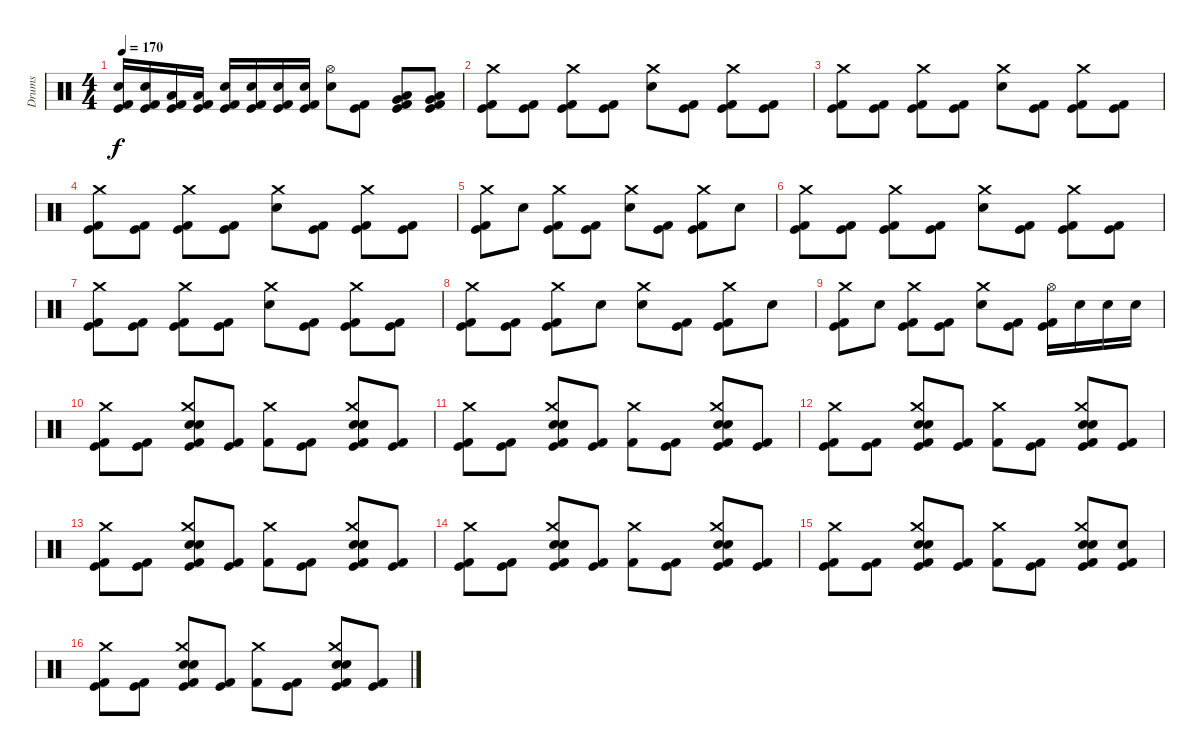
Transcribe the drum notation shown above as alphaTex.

\track ("Drums" "Drums") {instrument percussion}
\staff {score}
\articulation defaults
\ts (4 4)
\tempo 170
\clef neutral
\ks c
("Kick (hit) 2" "Snare (hit) 2" "Kick (hit)").16{dy f} ("Kick (hit) 2" "Snare (hit) 2" "Kick (hit)").16 ("Kick (hit) 2" "Low Tom (hit)" "Kick (hit)").16 ("Kick (hit) 2" "Low Tom (hit)" "Kick (hit)").16 ("Kick (hit) 2" "Snare (hit) 2" "Kick (hit)").16 ("Kick (hit) 2" "Snare (hit) 2" "Kick (hit)").16 ("Kick (hit) 2" "Snare (hit) 2" "Kick (hit)").16 ("Kick (hit) 2" "Snare (hit) 2" "Kick (hit)").16 ("Snare (hit) 2" "Hi-Hat (open)").8 ("Kick (hit) 2" "Kick (hit)").8 ("Kick (hit) 2" "Kick (hit)" "Very Low Tom (hit)" "Low Tom (hit)").8 ("Kick (hit) 2" "Kick (hit)" "Very Low Tom (hit)" "Low Tom (hit)").8 |
("Kick (hit) 2" "Kick (hit)" "Crash medium (hit)").8 ("Kick (hit) 2" "Kick (hit)").8 ("Kick (hit) 2" "Kick (hit)" "Crash medium (hit)").8 ("Kick (hit) 2" "Kick (hit)").8 ("Snare (hit) 2" "Crash medium (hit)").8 ("Kick (hit) 2" "Kick (hit)").8 ("Kick (hit) 2" "Kick (hit)" "Crash medium (hit)").8 ("Kick (hit) 2" "Kick (hit)").8 |
("Kick (hit) 2" "Kick (hit)" "Crash medium (hit)").8 ("Kick (hit) 2" "Kick (hit)").8 ("Kick (hit) 2" "Kick (hit)" "Crash medium (hit)").8 ("Kick (hit) 2" "Kick (hit)").8 ("Snare (hit) 2" "Crash medium (hit)").8 ("Kick (hit) 2" "Kick (hit)").8 ("Kick (hit) 2" "Kick (hit)" "Crash medium (hit)").8 ("Kick (hit) 2" "Kick (hit)").8 |
("Kick (hit) 2" "Kick (hit)" "Crash medium (hit)").8 ("Kick (hit) 2" "Kick (hit)").8 ("Kick (hit) 2" "Kick (hit)" "Crash medium (hit)").8 ("Kick (hit) 2" "Kick (hit)").8 ("Snare (hit) 2" "Crash medium (hit)").8 ("Kick (hit) 2" "Kick (hit)").8 ("Kick (hit) 2" "Kick (hit)" "Crash medium (hit)").8 ("Kick (hit) 2" "Kick (hit)").8 |
("Kick (hit) 2" "Kick (hit)" "Crash medium (hit)").8 "Snare (hit) 2".8 ("Kick (hit) 2" "Crash medium (hit)" "Kick (hit)").8 ("Kick (hit) 2" "Kick (hit)").8 ("Snare (hit) 2" "Crash medium (hit)").8 ("Kick (hit) 2" "Kick (hit)").8 ("Kick (hit) 2" "Kick (hit)" "Crash medium (hit)").8 "Snare (hit) 2".8 |
("Kick (hit) 2" "Kick (hit)" "Crash medium (hit)").8 ("Kick (hit) 2" "Kick (hit)").8 ("Kick (hit) 2" "Kick (hit)" "Crash medium (hit)").8 ("Kick (hit) 2" "Kick (hit)").8 ("Snare (hit) 2" "Crash medium (hit)").8 ("Kick (hit) 2" "Kick (hit)").8 ("Kick (hit) 2" "Kick (hit)" "Crash medium (hit)").8 ("Kick (hit) 2" "Kick (hit)").8 |
("Kick (hit) 2" "Kick (hit)" "Crash medium (hit)").8 ("Kick (hit) 2" "Kick (hit)").8 ("Kick (hit) 2" "Kick (hit)" "Crash medium (hit)").8 ("Kick (hit) 2" "Kick (hit)").8 ("Snare (hit) 2" "Crash medium (hit)").8 ("Kick (hit) 2" "Kick (hit)").8 ("Kick (hit) 2" "Kick (hit)" "Crash medium (hit)").8 ("Kick (hit) 2" "Kick (hit)").8 |
("Kick (hit) 2" "Kick (hit)" "Crash medium (hit)").8 ("Kick (hit) 2" "Kick (hit)").8 ("Kick (hit) 2" "Kick (hit)" "Crash medium (hit)").8 "Snare (hit) 2".8 ("Snare (hit) 2" "Crash medium (hit)").8 ("Kick (hit) 2" "Kick (hit)").8 ("Kick (hit) 2" "Kick (hit)" "Crash medium (hit)").8 "Snare (hit) 2".8 |
("Kick (hit) 2" "Kick (hit)" "Crash medium (hit)").8 "Snare (hit) 2".8 ("Kick (hit) 2" "Kick (hit)" "Crash medium (hit)").8 ("Kick (hit) 2" "Kick (hit)").8 ("Snare (hit) 2" "Crash medium (hit)").8 ("Kick (hit) 2" "Kick (hit)").8 ("Kick (hit) 2" "Kick (hit)" "Hi-Hat (open)").16 "Snare (hit) 2".16 "Snare (hit) 2".16 "Snare (hit) 2".16 |
("Kick (hit) 2" "Kick (hit)" "Crash medium (hit)").8 ("Kick (hit) 2" "Kick (hit)").8 ("Snare (hit) 2" "Electric Snare (hit)" "Kick (hit) 2" "Kick (hit)" "Crash medium (hit)").8 ("Kick (hit) 2" "Kick (hit)").8 ("Kick (hit) 2" "Crash medium (hit)").8 ("Kick (hit) 2" "Kick (hit)").8 ("Snare (hit) 2" "Electric Snare (hit)" "Kick (hit) 2" "Kick (hit)" "Crash medium (hit)").8 ("Kick (hit) 2" "Kick (hit)").8 |
("Kick (hit) 2" "Kick (hit)" "Crash medium (hit)").8 ("Kick (hit) 2" "Kick (hit)").8 ("Snare (hit) 2" "Electric Snare (hit)" "Kick (hit) 2" "Kick (hit)" "Crash medium (hit)").8 ("Kick (hit) 2" "Kick (hit)").8 ("Kick (hit) 2" "Crash medium (hit)").8 ("Kick (hit) 2" "Kick (hit)").8 ("Snare (hit) 2" "Electric Snare (hit)" "Kick (hit) 2" "Kick (hit)" "Crash medium (hit)").8 ("Kick (hit) 2" "Kick (hit)").8 |
("Kick (hit) 2" "Kick (hit)" "Crash medium (hit)").8 ("Kick (hit) 2" "Kick (hit)").8 ("Snare (hit) 2" "Electric Snare (hit)" "Kick (hit) 2" "Kick (hit)" "Crash medium (hit)").8 ("Kick (hit) 2" "Kick (hit)").8 ("Kick (hit) 2" "Crash medium (hit)").8 ("Kick (hit) 2" "Kick (hit)").8 ("Snare (hit) 2" "Electric Snare (hit)" "Kick (hit) 2" "Kick (hit)" "Crash medium (hit)").8 ("Kick (hit) 2" "Kick (hit)").8 |
("Kick (hit) 2" "Kick (hit)" "Crash medium (hit)").8 ("Kick (hit) 2" "Kick (hit)").8 ("Snare (hit) 2" "Electric Snare (hit)" "Kick (hit) 2" "Kick (hit)" "Crash medium (hit)").8 ("Kick (hit) 2" "Kick (hit)").8 ("Kick (hit) 2" "Crash medium (hit)").8 ("Kick (hit) 2" "Kick (hit)").8 ("Snare (hit) 2" "Electric Snare (hit)" "Kick (hit) 2" "Kick (hit)" "Crash medium (hit)").8 ("Kick (hit) 2" "Kick (hit)").8 |
("Kick (hit) 2" "Kick (hit)" "Crash medium (hit)").8 ("Kick (hit) 2" "Kick (hit)").8 ("Snare (hit) 2" "Electric Snare (hit)" "Kick (hit) 2" "Kick (hit)" "Crash medium (hit)").8 ("Kick (hit) 2" "Kick (hit)").8 ("Kick (hit) 2" "Crash medium (hit)").8 ("Kick (hit) 2" "Kick (hit)").8 ("Snare (hit) 2" "Electric Snare (hit)" "Kick (hit) 2" "Kick (hit)" "Crash medium (hit)").8 ("Kick (hit) 2" "Kick (hit)").8 |
("Kick (hit) 2" "Kick (hit)" "Crash medium (hit)").8 ("Kick (hit) 2" "Kick (hit)").8 ("Snare (hit) 2" "Electric Snare (hit)" "Kick (hit) 2" "Kick (hit)" "Crash medium (hit)").8 ("Kick (hit) 2" "Kick (hit)").8 ("Kick (hit) 2" "Crash medium (hit)").8 ("Kick (hit) 2" "Kick (hit)").8 ("Snare (hit) 2" "Electric Snare (hit)" "Kick (hit) 2" "Kick (hit)" "Crash medium (hit)").8 ("Electric Snare (hit)" "Kick (hit) 2" "Kick (hit)").8 |
("Kick (hit) 2" "Kick (hit)" "Crash medium (hit)").8 ("Kick (hit) 2" "Kick (hit)").8 ("Snare (hit) 2" "Electric Snare (hit)" "Kick (hit) 2" "Kick (hit)" "Crash medium (hit)").8 ("Kick (hit) 2" "Kick (hit)").8 ("Kick (hit) 2" "Crash medium (hit)").8 ("Kick (hit) 2" "Kick (hit)").8 ("Snare (hit) 2" "Electric Snare (hit)" "Kick (hit) 2" "Kick (hit)" "Crash medium (hit)").8 ("Kick (hit) 2" "Kick (hit)").8
